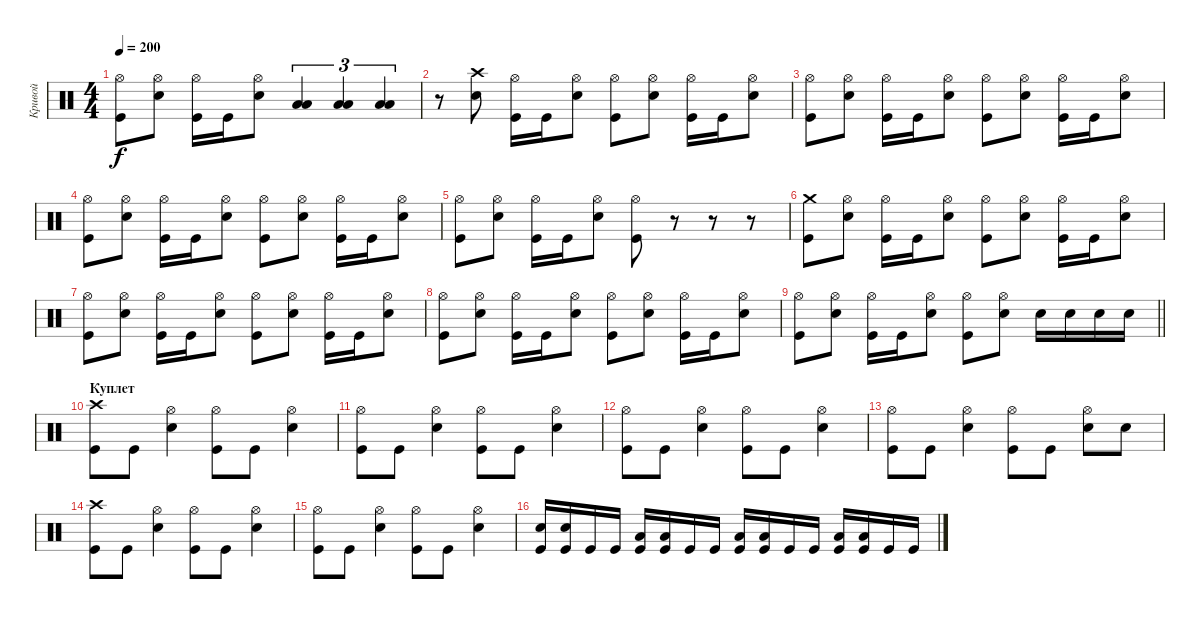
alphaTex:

\track ("Кривой" "Кривой") {instrument percussion}
\staff {score}
\articulation defaults
\ts (4 4)
\tempo 200
\clef neutral
\ks c
("Hi-Hat (open)" "Kick (hit)").8{dy f} ("Hi-Hat (open)" "Electric Snare (hit)").8 ("Hi-Hat (open)" "Kick (hit)").16 "Kick (hit)".16 ("Hi-Hat (open)" "Electric Snare (hit)").8 ("Low Tom (hit)" "Low Floor Tom (hit)").4{tu (3 2)} ("Low Tom (hit)" "Low Floor Tom (hit)").4{tu (3 2)} ("Low Tom (hit)" "Low Floor Tom (hit)").4{tu (3 2)} |
r.8 ("Crash high (hit)" "Electric Snare (hit)").8 ("Hi-Hat (open)" "Kick (hit)").16 "Kick (hit)".16 ("Hi-Hat (open)" "Electric Snare (hit)").8 ("Hi-Hat (open)" "Kick (hit)").8 ("Hi-Hat (open)" "Electric Snare (hit)").8 ("Hi-Hat (open)" "Kick (hit)").16 "Kick (hit)".16 ("Hi-Hat (open)" "Electric Snare (hit)").8 |
("Hi-Hat (open)" "Kick (hit)").8 ("Hi-Hat (open)" "Electric Snare (hit)").8 ("Hi-Hat (open)" "Kick (hit)").16 "Kick (hit)".16 ("Hi-Hat (open)" "Electric Snare (hit)").8 ("Hi-Hat (open)" "Kick (hit)").8 ("Hi-Hat (open)" "Electric Snare (hit)").8 ("Hi-Hat (open)" "Kick (hit)").16 "Kick (hit)".16 ("Hi-Hat (open)" "Electric Snare (hit)").8 |
("Hi-Hat (open)" "Kick (hit)").8 ("Hi-Hat (open)" "Electric Snare (hit)").8 ("Hi-Hat (open)" "Kick (hit)").16 "Kick (hit)".16 ("Hi-Hat (open)" "Electric Snare (hit)").8 ("Hi-Hat (open)" "Kick (hit)").8 ("Hi-Hat (open)" "Electric Snare (hit)").8 ("Hi-Hat (open)" "Kick (hit)").16 "Kick (hit)".16 ("Hi-Hat (open)" "Electric Snare (hit)").8 |
("Hi-Hat (open)" "Kick (hit)").8 ("Hi-Hat (open)" "Electric Snare (hit)").8 ("Hi-Hat (open)" "Kick (hit)").16 "Kick (hit)".16 ("Hi-Hat (open)" "Electric Snare (hit)").8 ("Hi-Hat (open)" "Kick (hit)").8 r.8 r.8 r.8 |
("Crash medium (hit)" "Kick (hit)").8 ("Hi-Hat (open)" "Electric Snare (hit)").8 ("Hi-Hat (open)" "Kick (hit)").16 "Kick (hit)".16 ("Hi-Hat (open)" "Electric Snare (hit)").8 ("Hi-Hat (open)" "Kick (hit)").8 ("Hi-Hat (open)" "Electric Snare (hit)").8 ("Hi-Hat (open)" "Kick (hit)").16 "Kick (hit)".16 ("Hi-Hat (open)" "Electric Snare (hit)").8 |
("Hi-Hat (open)" "Kick (hit)").8 ("Hi-Hat (open)" "Electric Snare (hit)").8 ("Hi-Hat (open)" "Kick (hit)").16 "Kick (hit)".16 ("Hi-Hat (open)" "Electric Snare (hit)").8 ("Hi-Hat (open)" "Kick (hit)").8 ("Hi-Hat (open)" "Electric Snare (hit)").8 ("Hi-Hat (open)" "Kick (hit)").16 "Kick (hit)".16 ("Hi-Hat (open)" "Electric Snare (hit)").8 |
("Hi-Hat (open)" "Kick (hit)").8 ("Hi-Hat (open)" "Electric Snare (hit)").8 ("Hi-Hat (open)" "Kick (hit)").16 "Kick (hit)".16 ("Hi-Hat (open)" "Electric Snare (hit)").8 ("Hi-Hat (open)" "Kick (hit)").8 ("Hi-Hat (open)" "Electric Snare (hit)").8 ("Hi-Hat (open)" "Kick (hit)").16 "Kick (hit)".16 ("Hi-Hat (open)" "Electric Snare (hit)").8 |
\barLineRight lightlight
("Hi-Hat (open)" "Kick (hit)").8 ("Hi-Hat (open)" "Electric Snare (hit)").8 ("Hi-Hat (open)" "Kick (hit)").16 "Kick (hit)".16 ("Hi-Hat (open)" "Electric Snare (hit)").8 ("Hi-Hat (open)" "Kick (hit)").8 ("Hi-Hat (open)" "Electric Snare (hit)").8 "Electric Snare (hit)".16 "Electric Snare (hit)".16 "Electric Snare (hit)".16 "Electric Snare (hit)".16 |
\section ("" "Куплет")
("Crash high (hit)" "Kick (hit)").8 "Kick (hit)".8 ("Hi-Hat (open)" "Electric Snare (hit)").4 ("Hi-Hat (open)" "Kick (hit)").8 "Kick (hit)".8 ("Hi-Hat (open)" "Electric Snare (hit)").4 |
("Hi-Hat (open)" "Kick (hit)").8 "Kick (hit)".8 ("Hi-Hat (open)" "Electric Snare (hit)").4 ("Hi-Hat (open)" "Kick (hit)").8 "Kick (hit)".8 ("Hi-Hat (open)" "Electric Snare (hit)").4 |
("Hi-Hat (open)" "Kick (hit)").8 "Kick (hit)".8 ("Hi-Hat (open)" "Electric Snare (hit)").4 ("Hi-Hat (open)" "Kick (hit)").8 "Kick (hit)".8 ("Hi-Hat (open)" "Electric Snare (hit)").4 |
("Hi-Hat (open)" "Kick (hit)").8 "Kick (hit)".8 ("Hi-Hat (open)" "Electric Snare (hit)").4 ("Hi-Hat (open)" "Kick (hit)").8 "Kick (hit)".8 ("Hi-Hat (open)" "Electric Snare (hit)").8 "Electric Snare (hit)".8 |
("Crash high (hit)" "Kick (hit)").8 "Kick (hit)".8 ("Hi-Hat (open)" "Electric Snare (hit)").4 ("Hi-Hat (open)" "Kick (hit)").8 "Kick (hit)".8 ("Hi-Hat (open)" "Electric Snare (hit)").4 |
("Hi-Hat (open)" "Kick (hit)").8 "Kick (hit)".8 ("Hi-Hat (open)" "Electric Snare (hit)").4 ("Hi-Hat (open)" "Kick (hit)").8 "Kick (hit)".8 ("Hi-Hat (open)" "Electric Snare (hit)").4 |
("Electric Snare (hit)" "Kick (hit)").16 ("Electric Snare (hit)" "Kick (hit)").16 "Kick (hit)".16 "Kick (hit)".16 ("Low Tom (hit)" "Kick (hit)").16 ("Low Tom (hit)" "Kick (hit)").16 "Kick (hit)".16 "Kick (hit)".16 ("Low Floor Tom (hit)" "Kick (hit)").16 ("Low Floor Tom (hit)" "Kick (hit)").16 "Kick (hit)".16 "Kick (hit)".16 ("Low Tom (hit)" "Kick (hit)").16 ("Low Tom (hit)" "Kick (hit)").16 "Kick (hit)".16 "Kick (hit)".16
